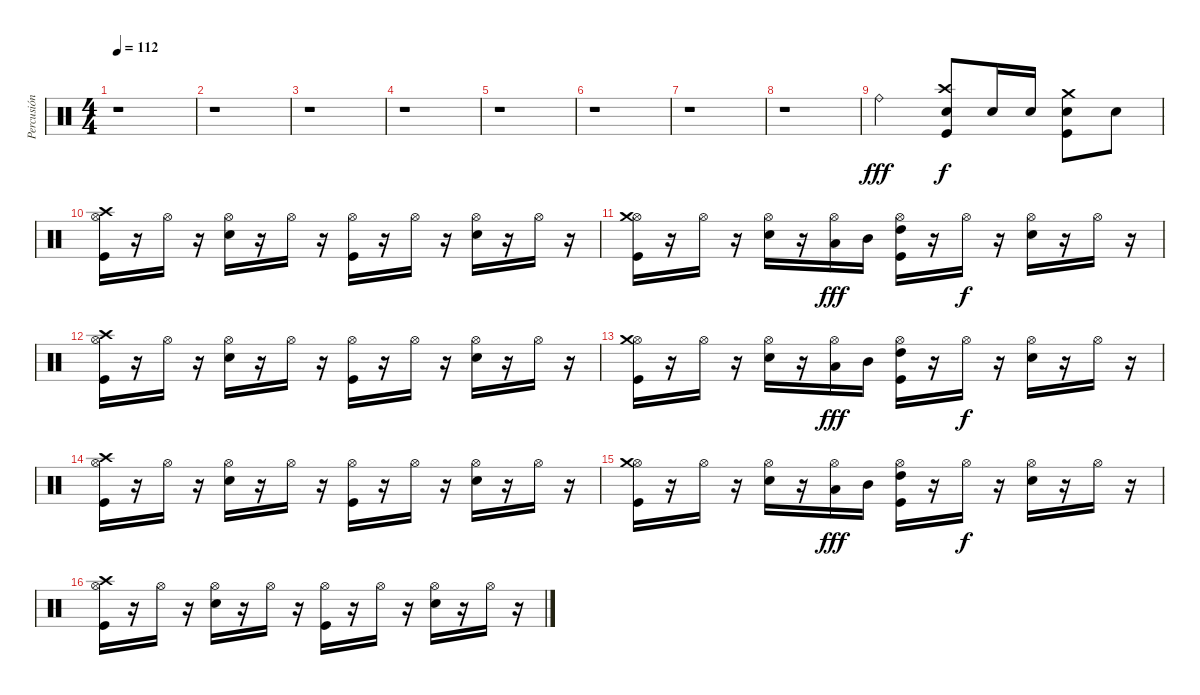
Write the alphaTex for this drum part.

\track ("Percusión" "Percusión") {instrument percussion}
\staff {score}
\articulation defaults
\ts (4 4)
\tempo 112
\clef neutral
\ks c
r.1{dy f} |
r.1 |
r.1 |
r.1 |
r.1 |
r.1 |
r.1 |
r.1 |
"Ride (bell)".2{dy fff} ("Snare (hit) 2" "Crash high (hit)" "Kick (hit)").8{dy f} "Snare (hit) 2".16 "Snare (hit) 2".16 ("Snare (hit) 2" "Crash medium (hit)" "Kick (hit)").8 "Snare (hit) 2".8 |
("Hi-Hat (open)" "Crash high (hit)" "Kick (hit)").16 r.16 "Hi-Hat (open)".16 r.16 ("Hi-Hat (open)" "Snare (hit) 2").16 r.16 "Hi-Hat (open)".16 r.16 ("Hi-Hat (open)" "Kick (hit)").16 r.16 "Hi-Hat (open)".16 r.16 ("Hi-Hat (open)" "Snare (hit) 2").16 r.16 "Hi-Hat (open)".16 r.16 |
("Hi-Hat (open)" "Crash medium (hit)" "Kick (hit)").16 r.16 "Hi-Hat (open)".16 r.16 ("Hi-Hat (open)" "Snare (hit) 2").16 r.16 ("Hi-Hat (open)" "Low Tom (hit)").16{dy fff} "Mid Tom (hit)".16 ("Hi-Hat (open)" "High Tom (hit)" "Kick (hit)").16 r.16 "Hi-Hat (open)".16{dy f} r.16 ("Hi-Hat (open)" "Snare (hit) 2").16 r.16 "Hi-Hat (open)".16 r.16 |
("Hi-Hat (open)" "Crash high (hit)" "Kick (hit)").16 r.16 "Hi-Hat (open)".16 r.16 ("Hi-Hat (open)" "Snare (hit) 2").16 r.16 "Hi-Hat (open)".16 r.16 ("Hi-Hat (open)" "Kick (hit)").16 r.16 "Hi-Hat (open)".16 r.16 ("Hi-Hat (open)" "Snare (hit) 2").16 r.16 "Hi-Hat (open)".16 r.16 |
("Hi-Hat (open)" "Crash medium (hit)" "Kick (hit)").16 r.16 "Hi-Hat (open)".16 r.16 ("Hi-Hat (open)" "Snare (hit) 2").16 r.16 ("Hi-Hat (open)" "Low Tom (hit)").16{dy fff} "Mid Tom (hit)".16 ("Hi-Hat (open)" "High Tom (hit)" "Kick (hit)").16 r.16 "Hi-Hat (open)".16{dy f} r.16 ("Hi-Hat (open)" "Snare (hit) 2").16 r.16 "Hi-Hat (open)".16 r.16 |
("Hi-Hat (open)" "Crash high (hit)" "Kick (hit)").16 r.16 "Hi-Hat (open)".16 r.16 ("Hi-Hat (open)" "Snare (hit) 2").16 r.16 "Hi-Hat (open)".16 r.16 ("Hi-Hat (open)" "Kick (hit)").16 r.16 "Hi-Hat (open)".16 r.16 ("Hi-Hat (open)" "Snare (hit) 2").16 r.16 "Hi-Hat (open)".16 r.16 |
("Hi-Hat (open)" "Crash medium (hit)" "Kick (hit)").16 r.16 "Hi-Hat (open)".16 r.16 ("Hi-Hat (open)" "Snare (hit) 2").16 r.16 ("Hi-Hat (open)" "Low Tom (hit)").16{dy fff} "Mid Tom (hit)".16 ("Hi-Hat (open)" "High Tom (hit)" "Kick (hit)").16 r.16 "Hi-Hat (open)".16{dy f} r.16 ("Hi-Hat (open)" "Snare (hit) 2").16 r.16 "Hi-Hat (open)".16 r.16 |
("Hi-Hat (open)" "Crash high (hit)" "Kick (hit)").16 r.16 "Hi-Hat (open)".16 r.16 ("Hi-Hat (open)" "Snare (hit) 2").16 r.16 "Hi-Hat (open)".16 r.16 ("Hi-Hat (open)" "Kick (hit)").16 r.16 "Hi-Hat (open)".16 r.16 ("Hi-Hat (open)" "Snare (hit) 2").16 r.16 "Hi-Hat (open)".16 r.16
